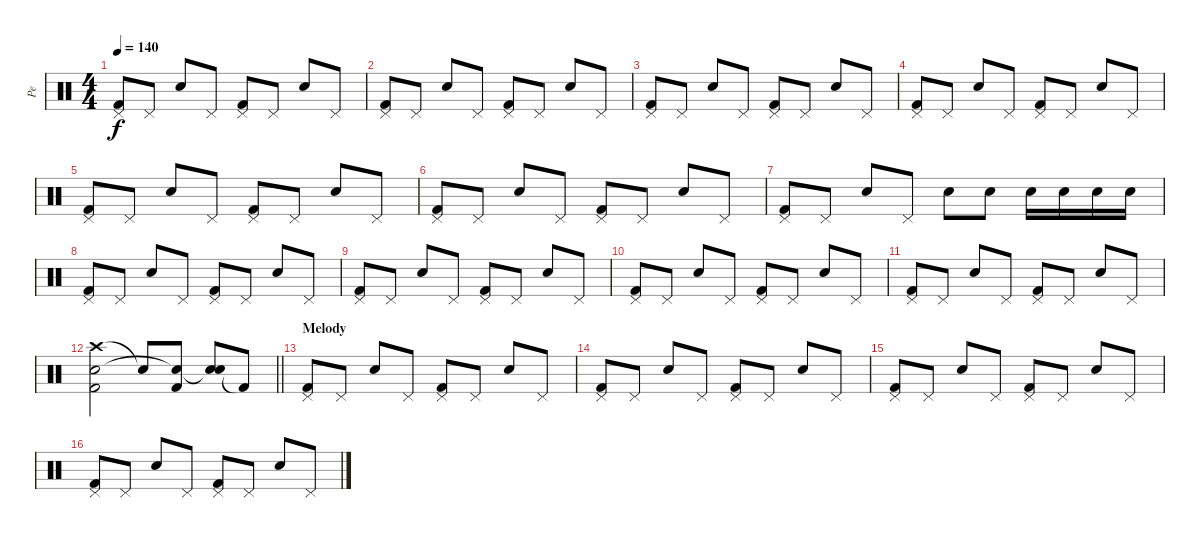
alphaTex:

\track ("Pe" "Pe") {instrument percussion}
\staff {score}
\articulation defaults
\ts (4 4)
\tempo 140
\clef neutral
\ks c
("Kick (hit) 2" "Pedal Hi-Hat (hit)").8{dy f} "Pedal Hi-Hat (hit)".8 "Snare (hit) 2".8 "Pedal Hi-Hat (hit)".8 ("Kick (hit) 2" "Pedal Hi-Hat (hit)").8 "Pedal Hi-Hat (hit)".8 "Snare (hit) 2".8 "Pedal Hi-Hat (hit)".8 |
("Kick (hit) 2" "Pedal Hi-Hat (hit)").8 "Pedal Hi-Hat (hit)".8 "Snare (hit) 2".8 "Pedal Hi-Hat (hit)".8 ("Kick (hit) 2" "Pedal Hi-Hat (hit)").8 "Pedal Hi-Hat (hit)".8 "Snare (hit) 2".8 "Pedal Hi-Hat (hit)".8 |
("Kick (hit) 2" "Pedal Hi-Hat (hit)").8 "Pedal Hi-Hat (hit)".8 "Snare (hit) 2".8 "Pedal Hi-Hat (hit)".8 ("Kick (hit) 2" "Pedal Hi-Hat (hit)").8 "Pedal Hi-Hat (hit)".8 "Snare (hit) 2".8 "Pedal Hi-Hat (hit)".8 |
("Kick (hit) 2" "Pedal Hi-Hat (hit)").8 "Pedal Hi-Hat (hit)".8 "Snare (hit) 2".8 "Pedal Hi-Hat (hit)".8 ("Kick (hit) 2" "Pedal Hi-Hat (hit)").8 "Pedal Hi-Hat (hit)".8 "Snare (hit) 2".8 "Pedal Hi-Hat (hit)".8 |
("Kick (hit) 2" "Pedal Hi-Hat (hit)").8 "Pedal Hi-Hat (hit)".8 "Snare (hit) 2".8 "Pedal Hi-Hat (hit)".8 ("Kick (hit) 2" "Pedal Hi-Hat (hit)").8 "Pedal Hi-Hat (hit)".8 "Snare (hit) 2".8 "Pedal Hi-Hat (hit)".8 |
("Kick (hit) 2" "Pedal Hi-Hat (hit)").8 "Pedal Hi-Hat (hit)".8 "Snare (hit) 2".8 "Pedal Hi-Hat (hit)".8 ("Kick (hit) 2" "Pedal Hi-Hat (hit)").8 "Pedal Hi-Hat (hit)".8 "Snare (hit) 2".8 "Pedal Hi-Hat (hit)".8 |
("Kick (hit) 2" "Pedal Hi-Hat (hit)").8 "Pedal Hi-Hat (hit)".8 "Snare (hit) 2".8 "Pedal Hi-Hat (hit)".8 "Snare (hit) 2".8 "Snare (hit) 2".8 "Snare (hit) 2".16 "Snare (hit) 2".16 "Snare (hit) 2".16 "Snare (hit) 2".16 |
("Kick (hit) 2" "Pedal Hi-Hat (hit)").8 "Pedal Hi-Hat (hit)".8 "Snare (hit) 2".8 "Pedal Hi-Hat (hit)".8 ("Kick (hit) 2" "Pedal Hi-Hat (hit)").8 "Pedal Hi-Hat (hit)".8 "Snare (hit) 2".8 "Pedal Hi-Hat (hit)".8 |
("Kick (hit) 2" "Pedal Hi-Hat (hit)").8 "Pedal Hi-Hat (hit)".8 "Snare (hit) 2".8 "Pedal Hi-Hat (hit)".8 ("Kick (hit) 2" "Pedal Hi-Hat (hit)").8 "Pedal Hi-Hat (hit)".8 "Snare (hit) 2".8 "Pedal Hi-Hat (hit)".8 |
("Kick (hit) 2" "Pedal Hi-Hat (hit)").8 "Pedal Hi-Hat (hit)".8 "Snare (hit) 2".8 "Pedal Hi-Hat (hit)".8 ("Kick (hit) 2" "Pedal Hi-Hat (hit)").8 "Pedal Hi-Hat (hit)".8 "Snare (hit) 2".8 "Pedal Hi-Hat (hit)".8 |
("Kick (hit) 2" "Pedal Hi-Hat (hit)").8 "Pedal Hi-Hat (hit)".8 "Snare (hit) 2".8 "Pedal Hi-Hat (hit)".8 ("Kick (hit) 2" "Pedal Hi-Hat (hit)").8 "Pedal Hi-Hat (hit)".8 "Snare (hit) 2".8 "Pedal Hi-Hat (hit)".8 |
\barLineRight lightlight
("Crash high (hit)" "Snare (hit) 2" "Kick (hit) 2").2 "Snare (hit)"{t}.8 ("Kick (hit) 2" "Snare (hit) 2"{t}).8 ("Snare (hit) 2" "Snare (hit) 2"{t}).8 "Kick (hit) 2"{t}.8 |
\section ("" "Melody")
("Kick (hit) 2" "Pedal Hi-Hat (hit)").8 "Pedal Hi-Hat (hit)".8 "Snare (hit) 2".8 "Pedal Hi-Hat (hit)".8 ("Kick (hit) 2" "Pedal Hi-Hat (hit)").8 "Pedal Hi-Hat (hit)".8 "Snare (hit) 2".8 "Pedal Hi-Hat (hit)".8 |
("Kick (hit) 2" "Pedal Hi-Hat (hit)").8 "Pedal Hi-Hat (hit)".8 "Snare (hit) 2".8 "Pedal Hi-Hat (hit)".8 ("Kick (hit) 2" "Pedal Hi-Hat (hit)").8 "Pedal Hi-Hat (hit)".8 "Snare (hit) 2".8 "Pedal Hi-Hat (hit)".8 |
("Kick (hit) 2" "Pedal Hi-Hat (hit)").8 "Pedal Hi-Hat (hit)".8 "Snare (hit) 2".8 "Pedal Hi-Hat (hit)".8 ("Kick (hit) 2" "Pedal Hi-Hat (hit)").8 "Pedal Hi-Hat (hit)".8 "Snare (hit) 2".8 "Pedal Hi-Hat (hit)".8 |
("Kick (hit) 2" "Pedal Hi-Hat (hit)").8 "Pedal Hi-Hat (hit)".8 "Snare (hit) 2".8 "Pedal Hi-Hat (hit)".8 ("Kick (hit) 2" "Pedal Hi-Hat (hit)").8 "Pedal Hi-Hat (hit)".8 "Snare (hit) 2".8 "Pedal Hi-Hat (hit)".8
